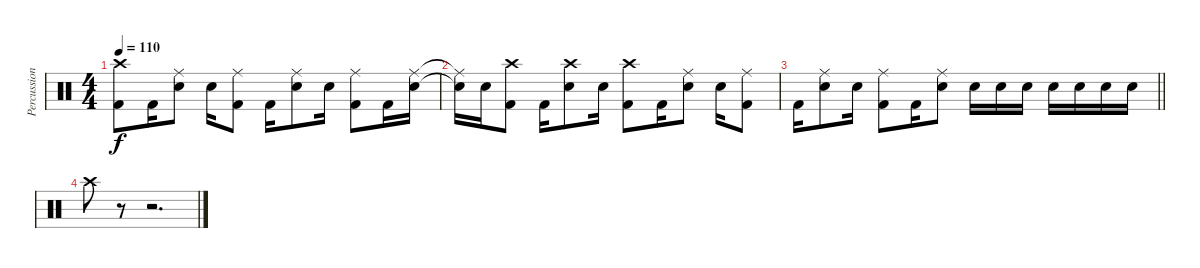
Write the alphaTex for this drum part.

\track ("Percussion" "Percussion") {instrument percussion}
\staff {score}
\articulation defaults
\ts (4 4)
\tempo 110
\clef neutral
\ks c
("Kick (hit) 2" "Crash high (hit)").8{dy f} "Kick (hit) 2".16 ("Electric Snare (hit)" "Ride (middle)").8 "Electric Snare (hit)".16 ("Kick (hit) 2" "Ride (middle)").8 "Kick (hit) 2".16 ("Electric Snare (hit)" "Ride (middle)").8 "Electric Snare (hit)".16 ("Kick (hit) 2" "Ride (middle)").8 "Kick (hit) 2".16 ("Electric Snare (hit)" "Ride (middle)").16 |
("Electric Snare (hit)"{t} "Ride (middle)"{t}).16 "Electric Snare (hit)".16 ("Kick (hit) 2" "Crash high (hit)").8 "Kick (hit) 2".16 ("Electric Snare (hit)" "Crash high (hit)").8 "Electric Snare (hit)".16 ("Kick (hit) 2" "Crash high (hit)").8 "Kick (hit) 2".16 ("Electric Snare (hit)" "Ride (middle)").8 "Electric Snare (hit)".16 ("Kick (hit) 2" "Ride (middle)").8 |
\barLineRight lightlight "Kick (hit) 2".16
("Electric Snare (hit)" "Ride (middle)").8 "Electric Snare (hit)".16 ("Kick (hit) 2" "Ride (middle)").8 "Kick (hit) 2".16 ("Electric Snare (hit)" "Ride (middle)").8 "Electric Snare (hit)".16 "Electric Snare (hit)".16 "Electric Snare (hit)".16 "Electric Snare (hit)".16 "Electric Snare (hit)".16 "Electric Snare (hit)".16 "Electric Snare (hit)".16 |
"Crash high (hit)".8 r.8 r.2{d}
